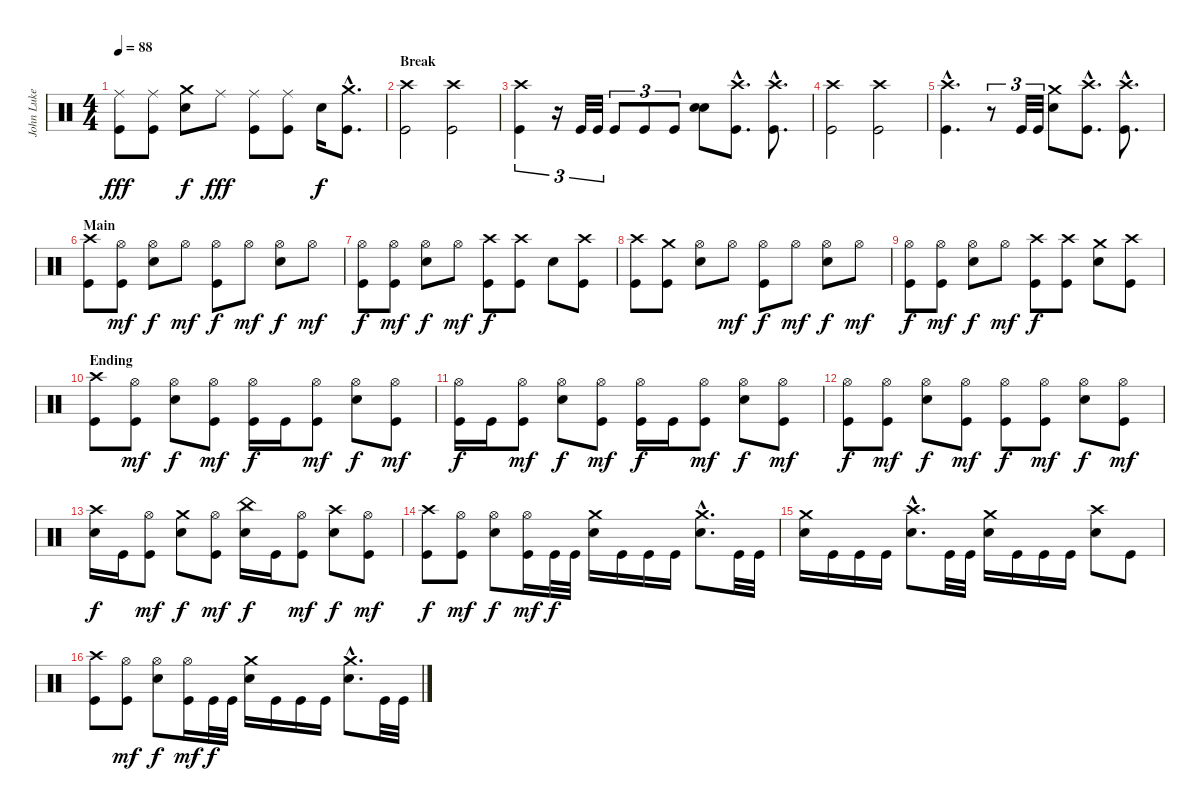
\track ("John Luke (Drums)" "John Luke ") {instrument percussion}
\staff {score}
\articulation defaults
\ts (4 4)
\tempo 88
\clef neutral
\ks c
("Ride (middle)" "Kick (hit)").8{dy fff} ("Ride (middle)" "Kick (hit)").8 ("Crash medium (hit)" "Electric Snare (hit)").8{dy f} "Ride (middle)".8{dy fff} ("Ride (middle)" "Kick (hit)").8 ("Ride (middle)" "Kick (hit)").8 "Electric Snare (hit)".16{dy f} ("Crash medium (hit)"{hac} "Kick (hit)"{hac}).8{d} |
\section ("" "Break")
("Crash high (hit)" "Kick (hit)").2 ("Crash high (hit)" "Kick (hit)").2 |
("Crash high (hit)" "Kick (hit)").4{tu (3 2)} r.16{tu (3 2)} "Kick (hit)".32{tu (3 2)} "Kick (hit)".32{tu (3 2)} "Kick (hit)".8{tu (3 2)} "Kick (hit)".8{tu (3 2)} "Kick (hit)".8{tu (3 2)} ("Electric Snare (hit)" "Electric Snare (hit)").8{bu 60} ("Crash high (hit)"{hac} "Kick (hit)"{hac}).8{d} ("Crash high (hit)"{hac} "Kick (hit)"{hac}).8{d} |
("Crash high (hit)" "Kick (hit)").2 ("Crash high (hit)" "Kick (hit)").2 |
("Crash high (hit)"{hac} "Kick (hit)"{hac}).4{d} r.8{tu (3 2)} "Kick (hit)".32{tu (3 2)} "Kick (hit)".32{tu (3 2)} ("Crash medium (hit)" "Electric Snare (hit)").8 ("Crash high (hit)"{hac} "Kick (hit)"{hac}).8{d} ("Crash high (hit)"{hac} "Kick (hit)"{hac}).8{d} |
\section ("" "Main")
("Crash high (hit)" "Kick (hit)").8 ("Hi-Hat (open)" "Kick (hit)").8{dy mf} ("Hi-Hat (open)" "Electric Snare (hit)").8{dy f} "Hi-Hat (open)".8{dy mf} ("Hi-Hat (open)" "Kick (hit)").8{dy f} "Hi-Hat (open)".8{dy mf} ("Hi-Hat (open)" "Electric Snare (hit)").8{dy f} "Hi-Hat (open)".8{dy mf} |
("Hi-Hat (open)" "Kick (hit)").8{dy f} ("Hi-Hat (open)" "Kick (hit)").8{dy mf} ("Hi-Hat (open)" "Electric Snare (hit)").8{dy f} "Hi-Hat (open)".8{dy mf} ("Crash high (hit)" "Kick (hit)").8{dy f} ("Crash high (hit)" "Kick (hit)").8 "Electric Snare (hit)".8 ("Crash high (hit)" "Kick (hit)").8 |
("Crash high (hit)" "Kick (hit)").8 ("Crash medium (hit)" "Kick (hit)").8 ("Hi-Hat (open)" "Electric Snare (hit)").8 "Hi-Hat (open)".8{dy mf} ("Hi-Hat (open)" "Kick (hit)").8{dy f} "Hi-Hat (open)".8{dy mf} ("Hi-Hat (open)" "Electric Snare (hit)").8{dy f} "Hi-Hat (open)".8{dy mf} |
("Hi-Hat (open)" "Kick (hit)").8{dy f} ("Hi-Hat (open)" "Kick (hit)").8{dy mf} ("Hi-Hat (open)" "Electric Snare (hit)").8{dy f} "Hi-Hat (open)".8{dy mf} ("Crash high (hit)" "Kick (hit)").8{dy f} ("Crash high (hit)" "Kick (hit)").8 ("Crash medium (hit)" "Electric Snare (hit)").8 ("Crash high (hit)" "Kick (hit)").8 |
\section ("" "Ending")
("Crash high (hit)" "Kick (hit)").8 ("Hi-Hat (open)" "Kick (hit)").8{dy mf} ("Hi-Hat (open)" "Electric Snare (hit)").8{dy f} ("Hi-Hat (open)" "Kick (hit)").8{dy mf} ("Hi-Hat (open)" "Kick (hit)").16{dy f} "Kick (hit)".16 ("Hi-Hat (open)" "Kick (hit)").8{dy mf} ("Hi-Hat (open)" "Electric Snare (hit)").8{dy f} ("Hi-Hat (open)" "Kick (hit)").8{dy mf} |
("Hi-Hat (open)" "Kick (hit)").16{dy f} "Kick (hit)".16 ("Hi-Hat (open)" "Kick (hit)").8{dy mf} ("Hi-Hat (open)" "Electric Snare (hit)").8{dy f} ("Hi-Hat (open)" "Kick (hit)").8{dy mf} ("Hi-Hat (open)" "Kick (hit)").16{dy f} "Kick (hit)".16 ("Hi-Hat (open)" "Kick (hit)").8{dy mf} ("Hi-Hat (open)" "Electric Snare (hit)").8{dy f} ("Hi-Hat (open)" "Kick (hit)").8{dy mf} |
("Hi-Hat (open)" "Kick (hit)").8{dy f} ("Hi-Hat (open)" "Kick (hit)").8{dy mf} ("Hi-Hat (open)" "Electric Snare (hit)").8{dy f} ("Hi-Hat (open)" "Kick (hit)").8{dy mf} ("Hi-Hat (open)" "Kick (hit)").8{dy f} ("Hi-Hat (open)" "Kick (hit)").8{dy mf} ("Hi-Hat (open)" "Electric Snare (hit)").8{dy f} ("Hi-Hat (open)" "Kick (hit)").8{dy mf} |
("Crash high (hit)" "Electric Snare (hit)").16{dy f} "Kick (hit)".16 ("Hi-Hat (open)" "Kick (hit)").8{dy mf} ("Crash medium (hit)" "Electric Snare (hit)").8{dy f} ("Hi-Hat (open)" "Kick (hit)").8{dy mf} ("China (hit)" "Electric Snare (hit)").16{dy f} "Kick (hit)".16 ("Hi-Hat (open)" "Kick (hit)").8{dy mf} ("Crash high (hit)" "Electric Snare (hit)").8{dy f} ("Hi-Hat (open)" "Kick (hit)").8{dy mf} |
("Crash high (hit)" "Kick (hit)").8{dy f} ("Hi-Hat (open)" "Kick (hit)").8{dy mf} ("Hi-Hat (open)" "Electric Snare (hit)").8{dy f} ("Hi-Hat (open)" "Kick (hit)").16{dy mf} "Kick (hit)".32{dy f} "Kick (hit)".32 ("Crash medium (hit)" "Electric Snare (hit)").16 "Kick (hit)".16 "Kick (hit)".16 "Kick (hit)".16 ("Crash medium (hit)"{hac} "Electric Snare (hit)"{hac}).8{d} "Kick (hit)".32 "Kick (hit)".32 |
("Crash medium (hit)" "Electric Snare (hit)").16 "Kick (hit)".16 "Kick (hit)".16 "Kick (hit)".16 ("Crash high (hit)"{hac} "Electric Snare (hit)"{hac}).8{d} "Kick (hit)".32 "Kick (hit)".32 ("Crash medium (hit)" "Electric Snare (hit)").16 "Kick (hit)".16 "Kick (hit)".16 "Kick (hit)".16 ("Crash high (hit)" "Electric Snare (hit)").8 "Kick (hit)".8 |
("Crash high (hit)" "Kick (hit)").8 ("Hi-Hat (open)" "Kick (hit)").8{dy mf} ("Hi-Hat (open)" "Electric Snare (hit)").8{dy f} ("Hi-Hat (open)" "Kick (hit)").16{dy mf} "Kick (hit)".32{dy f} "Kick (hit)".32 ("Crash medium (hit)" "Electric Snare (hit)").16 "Kick (hit)".16 "Kick (hit)".16 "Kick (hit)".16 ("Crash medium (hit)"{hac} "Electric Snare (hit)"{hac}).8{d} "Kick (hit)".32 "Kick (hit)".32
